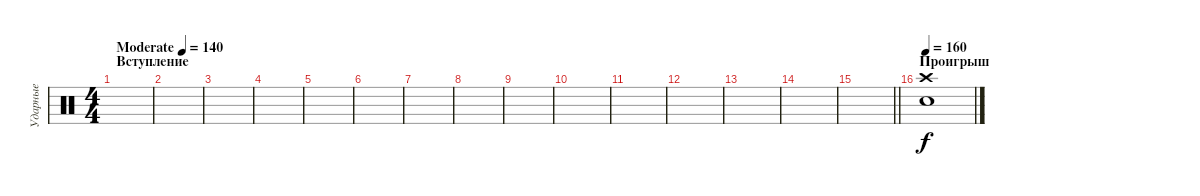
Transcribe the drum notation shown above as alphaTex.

\track ("Ударные" "Ударные") {instrument percussion}
\staff {score}
\articulation defaults
\ts (4 4)
\section ("" "Вступление")
\tempo (140 "Moderate")
\clef neutral
\ks c
|
|
|
|
|
|
|
|
|
|
|
|
|
|
\barLineRight lightlight
|
\section ("" "Проигрыш")
\tempo 160
("Snare (hit) 2" "Crash high (hit)").1
